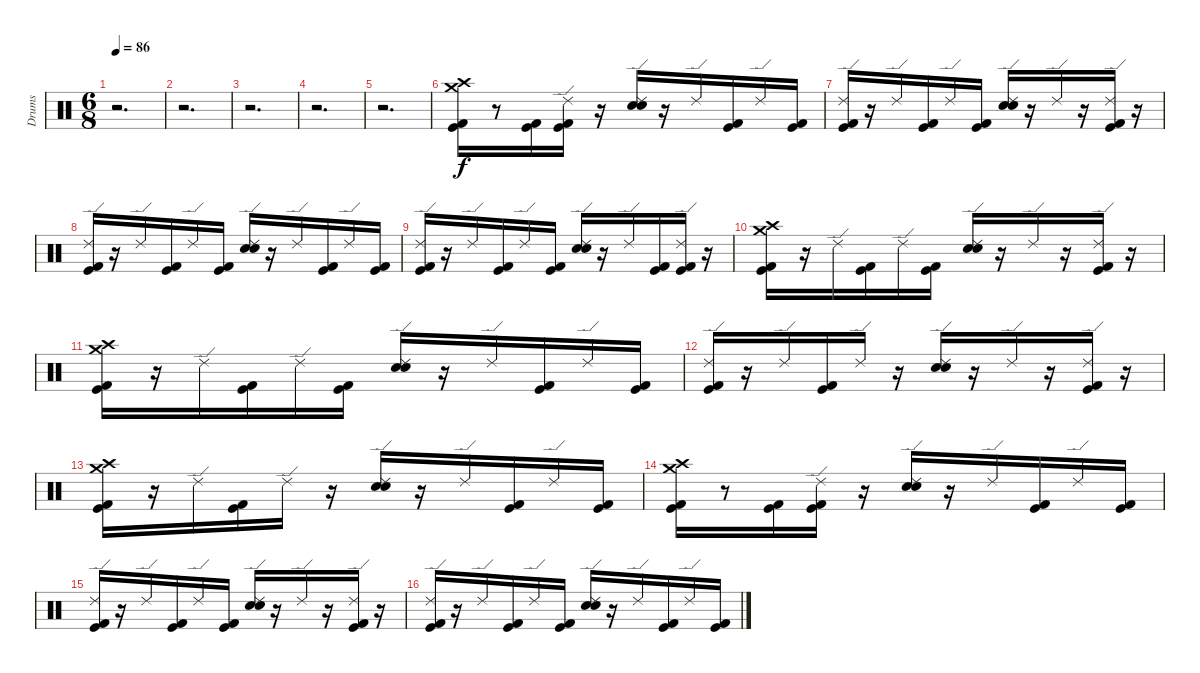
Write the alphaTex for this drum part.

\track ("Drums" "Drums") {instrument percussion}
\staff {score}
\articulation defaults
\ts (6 8)
\tempo 86
\clef neutral
\ks c
r.2{d dy f} |
r.2{d} |
r.2{d} |
r.2{d} |
r.2{d} |
("Crash high (hit)" "Kick (hit) 2" "Crash medium (hit)" "Kick (hit)").16 r.8 ("Kick (hit) 2" "Kick (hit)").16 ("Ride (edge) 2" "Kick (hit) 2" "Kick (hit)").16 r.16 ("Electric Snare (hit)" "Snare (hit) 2" "Ride (edge) 2").16 r.16 "Ride (edge) 2".16 ("Kick (hit) 2" "Kick (hit)").16 "Ride (edge) 2".16 ("Kick (hit) 2" "Kick (hit)").16 |
("Ride (edge) 2" "Kick (hit) 2" "Kick (hit)").16 r.16 "Ride (edge) 2".16 ("Kick (hit) 2" "Kick (hit)").16 "Ride (edge) 2".16 ("Kick (hit) 2" "Kick (hit)").16 ("Electric Snare (hit)" "Snare (hit) 2" "Ride (edge) 2").16 r.16 "Ride (edge) 2".16 r.16 ("Kick (hit) 2" "Kick (hit)" "Ride (edge) 2").16 r.16 |
("Ride (edge) 2" "Kick (hit) 2" "Kick (hit)").16 r.16 "Ride (edge) 2".16 ("Kick (hit) 2" "Kick (hit)").16 "Ride (edge) 2".16 ("Kick (hit) 2" "Kick (hit)").16 ("Electric Snare (hit)" "Snare (hit) 2" "Ride (edge) 2").16 r.16 "Ride (edge) 2".16 ("Kick (hit) 2" "Kick (hit)").16 "Ride (edge) 2".16 ("Kick (hit) 2" "Kick (hit)").16 |
("Ride (edge) 2" "Kick (hit) 2" "Kick (hit)").16 r.16 "Ride (edge) 2".16 ("Kick (hit) 2" "Kick (hit)").16 "Ride (edge) 2".16 ("Kick (hit) 2" "Kick (hit)").16 ("Ride (edge) 2" "Snare (hit) 2" "Electric Snare (hit)").16 r.16 "Ride (edge) 2".16 ("Kick (hit) 2" "Kick (hit)").16 ("Kick (hit) 2" "Kick (hit)" "Ride (edge) 2").16 r.16 |
("Crash high (hit)" "Crash medium (hit)" "Kick (hit) 2" "Kick (hit)").16 r.16 "Ride (edge) 2".16 ("Kick (hit) 2" "Kick (hit)").16 "Ride (edge) 2".16 ("Kick (hit) 2" "Kick (hit)").16 ("Ride (edge) 2" "Electric Snare (hit)" "Snare (hit) 2").16 r.16 "Ride (edge) 2".16 r.16 ("Ride (edge) 2" "Kick (hit) 2" "Kick (hit)").16 r.16 |
("Crash high (hit)" "Crash medium (hit)" "Kick (hit) 2" "Kick (hit)").16 r.16 "Ride (edge) 2".16 ("Kick (hit) 2" "Kick (hit)").16 "Ride (edge) 2".16 ("Kick (hit) 2" "Kick (hit)").16 ("Ride (edge) 2" "Electric Snare (hit)" "Snare (hit) 2").16 r.16 "Ride (edge) 2".16 ("Kick (hit)" "Kick (hit) 2").16 "Ride (edge) 2".16 ("Kick (hit) 2" "Kick (hit)").16 |
("Ride (edge) 2" "Kick (hit) 2" "Kick (hit)").16 r.16 "Ride (edge) 2".16 ("Kick (hit) 2" "Kick (hit)").16 "Ride (edge) 2".16 r.16 ("Electric Snare (hit)" "Snare (hit) 2" "Ride (edge) 2").16 r.16 "Ride (edge) 2".16 r.16 ("Kick (hit) 2" "Kick (hit)" "Ride (edge) 2").16 r.16 |
("Crash high (hit)" "Crash medium (hit)" "Kick (hit) 2" "Kick (hit)").16 r.16 "Ride (edge) 2".16 ("Kick (hit) 2" "Kick (hit)").16 "Ride (edge) 2".16 r.16 ("Electric Snare (hit)" "Snare (hit) 2" "Ride (edge) 2").16 r.16 "Ride (edge) 2".16 ("Kick (hit)" "Kick (hit) 2").16 "Ride (edge) 2".16 ("Kick (hit) 2" "Kick (hit)").16 |
("Crash high (hit)" "Kick (hit) 2" "Crash medium (hit)" "Kick (hit)").16 r.8 ("Kick (hit) 2" "Kick (hit)").16 ("Ride (edge) 2" "Kick (hit) 2" "Kick (hit)").16 r.16 ("Electric Snare (hit)" "Snare (hit) 2" "Ride (edge) 2").16 r.16 "Ride (edge) 2".16 ("Kick (hit) 2" "Kick (hit)").16 "Ride (edge) 2".16 ("Kick (hit) 2" "Kick (hit)").16 |
("Ride (edge) 2" "Kick (hit) 2" "Kick (hit)").16 r.16 "Ride (edge) 2".16 ("Kick (hit) 2" "Kick (hit)").16 "Ride (edge) 2".16 ("Kick (hit) 2" "Kick (hit)").16 ("Electric Snare (hit)" "Snare (hit) 2" "Ride (edge) 2").16 r.16 "Ride (edge) 2".16 r.16 ("Kick (hit) 2" "Kick (hit)" "Ride (edge) 2").16 r.16 |
("Ride (edge) 2" "Kick (hit) 2" "Kick (hit)").16 r.16 "Ride (edge) 2".16 ("Kick (hit) 2" "Kick (hit)").16 "Ride (edge) 2".16 ("Kick (hit) 2" "Kick (hit)").16 ("Electric Snare (hit)" "Snare (hit) 2" "Ride (edge) 2").16 r.16 "Ride (edge) 2".16 ("Kick (hit) 2" "Kick (hit)").16 "Ride (edge) 2".16 ("Kick (hit) 2" "Kick (hit)").16
